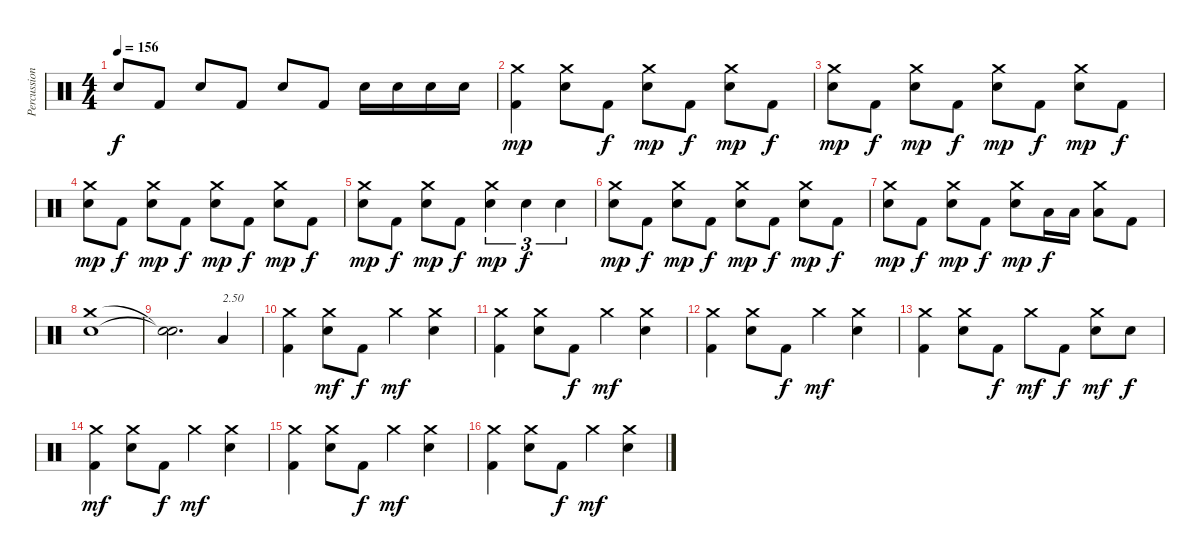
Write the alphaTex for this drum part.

\track ("Percussions" "Percussion") {instrument percussion}
\staff {score}
\articulation defaults
\ts (4 4)
\tempo 156
\clef neutral
\ks c "Electric Snare (hit)".8{dy f} "Kick (hit) 2".8 "Electric Snare (hit)".8 "Kick (hit) 2".8 "Electric Snare (hit)".8 "Kick (hit) 2".8 "Electric Snare (hit)".16 "Electric Snare (hit)".16 "Electric Snare (hit)".16 "Electric Snare (hit)".16
|
("Kick (hit) 2" "Crash medium (hit)").4{dy mp} ("Electric Snare (hit)" "Crash medium (hit)").8 "Kick (hit) 2".8{dy f} ("Electric Snare (hit)" "Crash medium (hit)").8{dy mp} "Kick (hit) 2".8{dy f} ("Electric Snare (hit)" "Crash medium (hit)").8{dy mp} "Kick (hit) 2".8{dy f} |
("Electric Snare (hit)" "Crash medium (hit)").8{dy mp} "Kick (hit) 2".8{dy f} ("Electric Snare (hit)" "Crash medium (hit)").8{dy mp} "Kick (hit) 2".8{dy f} ("Electric Snare (hit)" "Crash medium (hit)").8{dy mp} "Kick (hit) 2".8{dy f} ("Electric Snare (hit)" "Crash medium (hit)").8{dy mp} "Kick (hit) 2".8{dy f} |
("Electric Snare (hit)" "Crash medium (hit)").8{dy mp} "Kick (hit) 2".8{dy f} ("Electric Snare (hit)" "Crash medium (hit)").8{dy mp} "Kick (hit) 2".8{dy f} ("Electric Snare (hit)" "Crash medium (hit)").8{dy mp} "Kick (hit) 2".8{dy f} ("Electric Snare (hit)" "Crash medium (hit)").8{dy mp} "Kick (hit) 2".8{dy f} |
("Electric Snare (hit)" "Crash medium (hit)").8{dy mp} "Kick (hit) 2".8{dy f} ("Electric Snare (hit)" "Crash medium (hit)").8{dy mp} "Kick (hit) 2".8{dy f} ("Electric Snare (hit)" "Crash medium (hit)").4{tu (3 2) dy mp} "Electric Snare (hit)".4{tu (3 2) dy f} "Electric Snare (hit)".4{tu (3 2)} |
("Electric Snare (hit)" "Crash medium (hit)").8{dy mp} "Kick (hit) 2".8{dy f} ("Electric Snare (hit)" "Crash medium (hit)").8{dy mp} "Kick (hit) 2".8{dy f} ("Electric Snare (hit)" "Crash medium (hit)").8{dy mp} "Kick (hit) 2".8{dy f} ("Electric Snare (hit)" "Crash medium (hit)").8{dy mp} "Kick (hit) 2".8{dy f} |
("Electric Snare (hit)" "Crash medium (hit)").8{dy mp} "Kick (hit) 2".8{dy f} ("Electric Snare (hit)" "Crash medium (hit)").8{dy mp} "Kick (hit) 2".8{dy f} ("Electric Snare (hit)" "Crash medium (hit)").8{dy mp} "Low Floor Tom (hit)".16{dy f} "Low Floor Tom (hit)".16 ("Low Floor Tom (hit)" "Crash medium (hit)").8 "Kick (hit) 2".8 |
("Electric Snare (hit)" "Crash medium (hit)").1 |
("Snare (hit)"{t} "Snare (hit)"{t}).2{d} "Low Floor Tom (hit)".4{txt "2.50"} |
("Kick (hit) 2" "Crash medium (hit)").4 ("Electric Snare (hit)" "Crash medium (hit)").8{dy mf} "Kick (hit) 2".8{dy f} "Crash medium (hit)".4{dy mf} ("Electric Snare (hit)" "Crash medium (hit)").4 |
("Kick (hit) 2" "Crash medium (hit)").4 ("Electric Snare (hit)" "Crash medium (hit)").8 "Kick (hit) 2".8{dy f} "Crash medium (hit)".4{dy mf} ("Electric Snare (hit)" "Crash medium (hit)").4 |
("Kick (hit) 2" "Crash medium (hit)").4 ("Electric Snare (hit)" "Crash medium (hit)").8 "Kick (hit) 2".8{dy f} "Crash medium (hit)".4{dy mf} ("Electric Snare (hit)" "Crash medium (hit)").4 |
("Kick (hit) 2" "Crash medium (hit)").4 ("Electric Snare (hit)" "Crash medium (hit)").8 "Kick (hit) 2".8{dy f} "Crash medium (hit)".8{dy mf} "Kick (hit) 2".8{dy f} ("Electric Snare (hit)" "Crash medium (hit)").8{dy mf} "Electric Snare (hit)".8{dy f} |
("Kick (hit) 2" "Crash medium (hit)").4{dy mf} ("Electric Snare (hit)" "Crash medium (hit)").8 "Kick (hit) 2".8{dy f} "Crash medium (hit)".4{dy mf} ("Electric Snare (hit)" "Crash medium (hit)").4 |
("Kick (hit) 2" "Crash medium (hit)").4 ("Electric Snare (hit)" "Crash medium (hit)").8 "Kick (hit) 2".8{dy f} "Crash medium (hit)".4{dy mf} ("Electric Snare (hit)" "Crash medium (hit)").4 |
("Kick (hit) 2" "Crash medium (hit)").4 ("Electric Snare (hit)" "Crash medium (hit)").8 "Kick (hit) 2".8{dy f} "Crash medium (hit)".4{dy mf} ("Electric Snare (hit)" "Crash medium (hit)").4
